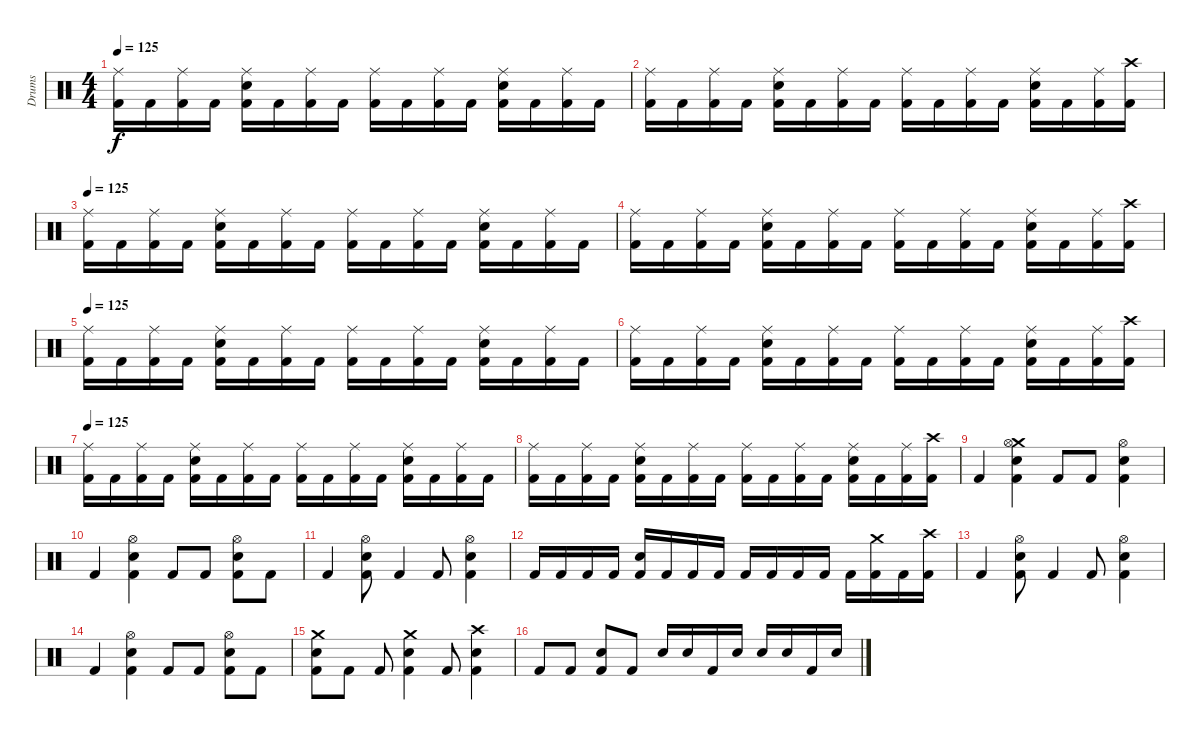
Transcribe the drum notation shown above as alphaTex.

\track ("Drums" "Drums") {instrument percussion}
\staff {score}
\articulation defaults
\ts (4 4)
\tempo 125
\clef neutral
\ks c
("Ride (middle)" "Kick (hit) 2").16{dy f} "Kick (hit) 2".16 ("Ride (middle)" "Kick (hit) 2").16 "Kick (hit) 2".16 ("Ride (middle)" "Electric Snare (hit)" "Kick (hit) 2").16 "Kick (hit) 2".16 ("Ride (middle)" "Kick (hit) 2").16 "Kick (hit) 2".16 ("Ride (middle)" "Kick (hit) 2").16 "Kick (hit) 2".16 ("Ride (middle)" "Kick (hit) 2").16 "Kick (hit) 2".16 ("Ride (middle)" "Electric Snare (hit)" "Kick (hit) 2").16 "Kick (hit) 2".16 ("Ride (middle)" "Kick (hit) 2").16 "Kick (hit) 2".16 |
("Ride (middle)" "Kick (hit) 2").16 "Kick (hit) 2".16 ("Ride (middle)" "Kick (hit) 2").16 "Kick (hit) 2".16 ("Ride (middle)" "Electric Snare (hit)" "Kick (hit) 2").16 "Kick (hit) 2".16 ("Ride (middle)" "Kick (hit) 2").16 "Kick (hit) 2".16 ("Ride (middle)" "Kick (hit) 2").16 "Kick (hit) 2".16 ("Ride (middle)" "Kick (hit) 2").16 "Kick (hit) 2".16 ("Ride (middle)" "Electric Snare (hit)" "Kick (hit) 2").16 "Kick (hit) 2".16 ("Ride (middle)" "Kick (hit) 2").16 ("Crash high (hit)" "Kick (hit) 2").16 |
\tempo 125
("Ride (middle)" "Kick (hit) 2").16 "Kick (hit) 2".16 ("Ride (middle)" "Kick (hit) 2").16 "Kick (hit) 2".16 ("Ride (middle)" "Electric Snare (hit)" "Kick (hit) 2").16 "Kick (hit) 2".16 ("Ride (middle)" "Kick (hit) 2").16 "Kick (hit) 2".16 ("Ride (middle)" "Kick (hit) 2").16 "Kick (hit) 2".16 ("Ride (middle)" "Kick (hit) 2").16 "Kick (hit) 2".16 ("Ride (middle)" "Electric Snare (hit)" "Kick (hit) 2").16 "Kick (hit) 2".16 ("Ride (middle)" "Kick (hit) 2").16 "Kick (hit) 2".16 |
("Ride (middle)" "Kick (hit) 2").16 "Kick (hit) 2".16 ("Ride (middle)" "Kick (hit) 2").16 "Kick (hit) 2".16 ("Ride (middle)" "Electric Snare (hit)" "Kick (hit) 2").16 "Kick (hit) 2".16 ("Ride (middle)" "Kick (hit) 2").16 "Kick (hit) 2".16 ("Ride (middle)" "Kick (hit) 2").16 "Kick (hit) 2".16 ("Ride (middle)" "Kick (hit) 2").16 "Kick (hit) 2".16 ("Ride (middle)" "Electric Snare (hit)" "Kick (hit) 2").16 "Kick (hit) 2".16 ("Ride (middle)" "Kick (hit) 2").16 ("Crash high (hit)" "Kick (hit) 2").16 |
\tempo 125
("Ride (middle)" "Kick (hit) 2").16 "Kick (hit) 2".16 ("Ride (middle)" "Kick (hit) 2").16 "Kick (hit) 2".16 ("Ride (middle)" "Electric Snare (hit)" "Kick (hit) 2").16 "Kick (hit) 2".16 ("Ride (middle)" "Kick (hit) 2").16 "Kick (hit) 2".16 ("Ride (middle)" "Kick (hit) 2").16 "Kick (hit) 2".16 ("Ride (middle)" "Kick (hit) 2").16 "Kick (hit) 2".16 ("Ride (middle)" "Electric Snare (hit)" "Kick (hit) 2").16 "Kick (hit) 2".16 ("Ride (middle)" "Kick (hit) 2").16 "Kick (hit) 2".16 |
("Ride (middle)" "Kick (hit) 2").16 "Kick (hit) 2".16 ("Ride (middle)" "Kick (hit) 2").16 "Kick (hit) 2".16 ("Ride (middle)" "Electric Snare (hit)" "Kick (hit) 2").16 "Kick (hit) 2".16 ("Ride (middle)" "Kick (hit) 2").16 "Kick (hit) 2".16 ("Ride (middle)" "Kick (hit) 2").16 "Kick (hit) 2".16 ("Ride (middle)" "Kick (hit) 2").16 "Kick (hit) 2".16 ("Ride (middle)" "Electric Snare (hit)" "Kick (hit) 2").16 "Kick (hit) 2".16 ("Ride (middle)" "Kick (hit) 2").16 ("Crash high (hit)" "Kick (hit) 2").16 |
\tempo 125
("Ride (middle)" "Kick (hit) 2").16 "Kick (hit) 2".16 ("Ride (middle)" "Kick (hit) 2").16 "Kick (hit) 2".16 ("Ride (middle)" "Electric Snare (hit)" "Kick (hit) 2").16 "Kick (hit) 2".16 ("Ride (middle)" "Kick (hit) 2").16 "Kick (hit) 2".16 ("Ride (middle)" "Kick (hit) 2").16 "Kick (hit) 2".16 ("Ride (middle)" "Kick (hit) 2").16 "Kick (hit) 2".16 ("Ride (middle)" "Electric Snare (hit)" "Kick (hit) 2").16 "Kick (hit) 2".16 ("Ride (middle)" "Kick (hit) 2").16 "Kick (hit) 2".16 |
("Ride (middle)" "Kick (hit) 2").16 "Kick (hit) 2".16 ("Ride (middle)" "Kick (hit) 2").16 "Kick (hit) 2".16 ("Ride (middle)" "Electric Snare (hit)" "Kick (hit) 2").16 "Kick (hit) 2".16 ("Ride (middle)" "Kick (hit) 2").16 "Kick (hit) 2".16 ("Ride (middle)" "Kick (hit) 2").16 "Kick (hit) 2".16 ("Ride (middle)" "Kick (hit) 2").16 "Kick (hit) 2".16 ("Ride (middle)" "Electric Snare (hit)" "Kick (hit) 2").16 "Kick (hit) 2".16 ("Ride (middle)" "Kick (hit) 2").16 ("Crash high (hit)" "Kick (hit) 2").16 |
"Kick (hit) 2".4 ("Crash medium (hit)" "Hi-Hat (open)" "Electric Snare (hit)" "Kick (hit) 2").4 "Kick (hit) 2".8 "Kick (hit) 2".8 ("Hi-Hat (open)" "Electric Snare (hit)" "Kick (hit) 2").4 |
"Kick (hit) 2".4 ("Hi-Hat (open)" "Electric Snare (hit)" "Kick (hit) 2").4 "Kick (hit) 2".8 "Kick (hit) 2".8 ("Hi-Hat (open)" "Electric Snare (hit)" "Kick (hit) 2").8 "Kick (hit) 2".8 |
"Kick (hit) 2".4 ("Hi-Hat (open)" "Electric Snare (hit)" "Kick (hit) 2").8 "Kick (hit) 2".4 "Kick (hit) 2".8 ("Hi-Hat (open)" "Electric Snare (hit)" "Kick (hit) 2").4 |
"Kick (hit) 2".16 "Kick (hit) 2".16 "Kick (hit) 2".16 "Kick (hit) 2".16 ("Electric Snare (hit)" "Kick (hit) 2").16 "Kick (hit) 2".16 "Kick (hit) 2".16 "Kick (hit) 2".16 "Kick (hit) 2".16 "Kick (hit) 2".16 "Kick (hit) 2".16 "Kick (hit) 2".16 "Kick (hit) 2".16 ("Crash medium (hit)" "Kick (hit) 2").16 "Kick (hit) 2".16 ("Crash high (hit)" "Kick (hit) 2").16 |
"Kick (hit) 2".4 ("Hi-Hat (open)" "Electric Snare (hit)" "Kick (hit) 2").8 "Kick (hit) 2".4 "Kick (hit) 2".8 ("Hi-Hat (open)" "Electric Snare (hit)" "Kick (hit) 2").4 |
"Kick (hit) 2".4 ("Hi-Hat (open)" "Electric Snare (hit)" "Kick (hit) 2").4 "Kick (hit) 2".8 "Kick (hit) 2".8 ("Hi-Hat (open)" "Electric Snare (hit)" "Kick (hit) 2").8 "Kick (hit) 2".8 |
("Crash medium (hit)" "Electric Snare (hit)" "Kick (hit) 2").8 "Kick (hit) 2".8 "Kick (hit) 2".8 ("Crash medium (hit)" "Electric Snare (hit)" "Kick (hit) 2").4 "Kick (hit) 2".8 ("Crash high (hit)" "Electric Snare (hit)" "Kick (hit) 2").4 |
"Kick (hit) 2".8 "Kick (hit) 2".8 ("Electric Snare (hit)" "Kick (hit) 2").8 "Kick (hit) 2".8 "Electric Snare (hit)".16 "Electric Snare (hit)".16 "Kick (hit) 2".16 "Electric Snare (hit)".16 "Electric Snare (hit)".16 "Electric Snare (hit)".16 "Kick (hit) 2".16 "Electric Snare (hit)".16
